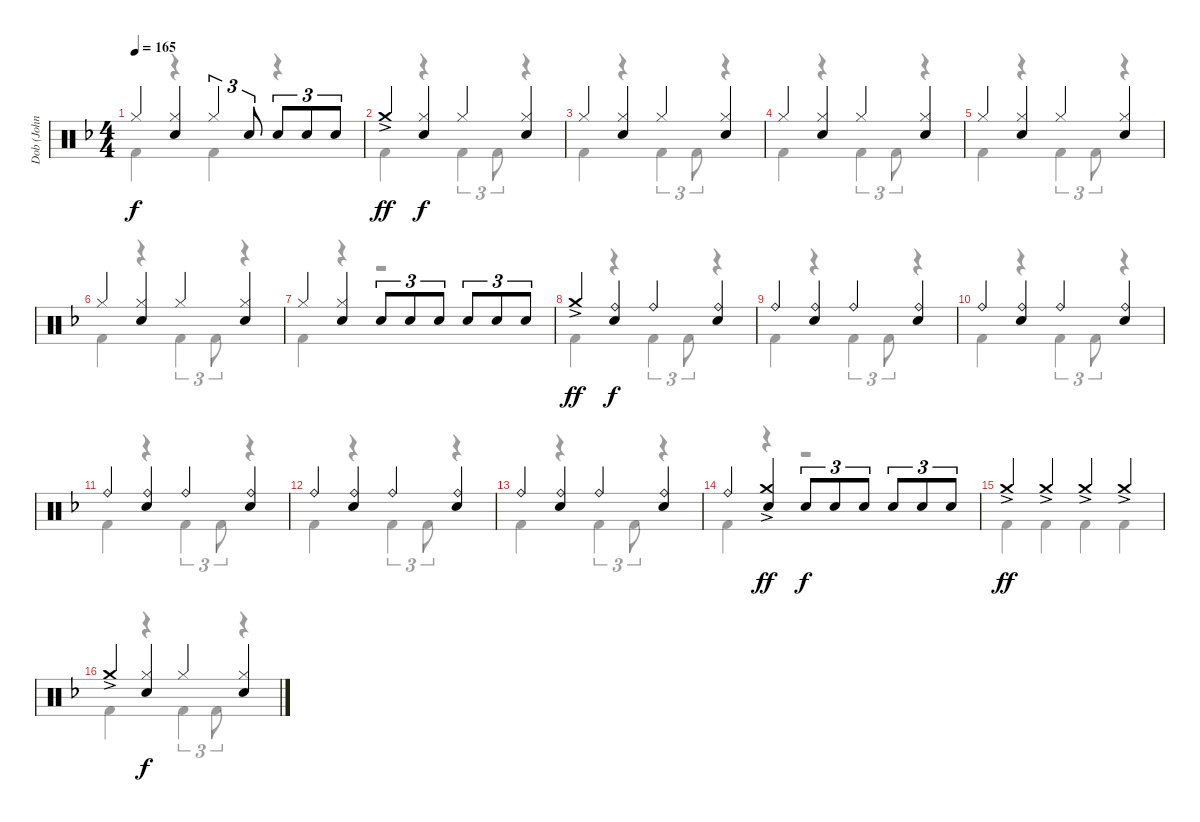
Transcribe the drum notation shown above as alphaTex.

\track ("Dob (John O’Reilly)" "Dob (John ") {instrument percussion}
\staff {score}
\articulation defaults
\voice
\ts (4 4)
\tempo 165
\clef neutral
\ks f "Hi-Hat (closed)".4{dy f}
("Hi-Hat (closed)" "Electric Snare (hit)").4 "Hi-Hat (closed)".4{tu (3 2)} "Electric Snare (hit)".8{tu (3 2)} "Electric Snare (hit)".8{tu (3 2)} "Electric Snare (hit)".8{tu (3 2)} "Electric Snare (hit)".8{tu (3 2)} |
"Crash medium (hit)"{ac}.4{dy ff} ("Hi-Hat (closed)" "Electric Snare (hit)").4{dy f} "Hi-Hat (closed)".4 ("Hi-Hat (closed)" "Electric Snare (hit)").4 |
"Hi-Hat (closed)".4 ("Hi-Hat (closed)" "Electric Snare (hit)").4 "Hi-Hat (closed)".4 ("Hi-Hat (closed)" "Electric Snare (hit)").4 |
"Hi-Hat (closed)".4 ("Hi-Hat (closed)" "Electric Snare (hit)").4 "Hi-Hat (closed)".4 ("Hi-Hat (closed)" "Electric Snare (hit)").4 |
"Hi-Hat (closed)".4 ("Hi-Hat (closed)" "Electric Snare (hit)").4 "Hi-Hat (closed)".4 ("Hi-Hat (closed)" "Electric Snare (hit)").4 |
"Hi-Hat (closed)".4 ("Hi-Hat (closed)" "Electric Snare (hit)").4 "Hi-Hat (closed)".4 ("Hi-Hat (closed)" "Electric Snare (hit)").4 |
"Hi-Hat (closed)".4 ("Hi-Hat (closed)" "Electric Snare (hit)").4 "Electric Snare (hit)".8{tu (3 2)} "Electric Snare (hit)".8{tu (3 2)} "Electric Snare (hit)".8{tu (3 2)} "Electric Snare (hit)".8{tu (3 2)} "Electric Snare (hit)".8{tu (3 2)} "Electric Snare (hit)".8{tu (3 2)} |
"Crash medium (hit)"{ac}.4{dy ff} ("Ride (bell)" "Electric Snare (hit)").4{dy f} "Ride (bell)".4 ("Ride (bell)" "Electric Snare (hit)").4 |
"Ride (bell)".4 ("Ride (bell)" "Electric Snare (hit)").4 "Ride (bell)".4 ("Ride (bell)" "Electric Snare (hit)").4 |
"Ride (bell)".4 ("Ride (bell)" "Electric Snare (hit)").4 "Ride (bell)".4 ("Ride (bell)" "Electric Snare (hit)").4 |
"Ride (bell)".4 ("Ride (bell)" "Electric Snare (hit)").4 "Ride (bell)".4 ("Ride (bell)" "Electric Snare (hit)").4 |
"Ride (bell)".4 ("Ride (bell)" "Electric Snare (hit)").4 "Ride (bell)".4 ("Ride (bell)" "Electric Snare (hit)").4 |
"Ride (bell)".4 ("Ride (bell)" "Electric Snare (hit)").4 "Ride (bell)".4 ("Ride (bell)" "Electric Snare (hit)").4 |
"Ride (bell)".4 ("Crash medium (hit)"{ac} "Electric Snare (hit)").4{dy ff} "Electric Snare (hit)".8{tu (3 2) dy f} "Electric Snare (hit)".8{tu (3 2)} "Electric Snare (hit)".8{tu (3 2)} "Electric Snare (hit)".8{tu (3 2)} "Electric Snare (hit)".8{tu (3 2)} "Electric Snare (hit)".8{tu (3 2)} |
"Crash medium (hit)"{ac}.4{dy ff} "Crash medium (hit)"{ac}.4 "Crash medium (hit)"{ac}.4 "Crash medium (hit)"{ac}.4 |
"Crash medium (hit)"{ac}.4 ("Hi-Hat (closed)" "Electric Snare (hit)").4{dy f} "Hi-Hat (closed)".4 ("Hi-Hat (closed)" "Electric Snare (hit)").4
\voice
\clef neutral
\ottava regular
\simile none
\ks f "Kick (hit) 2".4{dy f}
r.4 "Kick (hit) 2".4 r.4 |
"Kick (hit) 2".4 r.4 "Kick (hit) 2".4{tu (3 2)} "Kick (hit) 2".8{tu (3 2)} r.4 |
"Kick (hit) 2".4 r.4 "Kick (hit) 2".4{tu (3 2)} "Kick (hit) 2".8{tu (3 2)} r.4 |
"Kick (hit) 2".4 r.4 "Kick (hit) 2".4{tu (3 2)} "Kick (hit) 2".8{tu (3 2)} r.4 |
"Kick (hit) 2".4 r.4 "Kick (hit) 2".4{tu (3 2)} "Kick (hit) 2".8{tu (3 2)} r.4 |
"Kick (hit) 2".4 r.4 "Kick (hit) 2".4{tu (3 2)} "Kick (hit) 2".8{tu (3 2)} r.4 |
"Kick (hit) 2".4 r.4 r.2 |
"Kick (hit) 2".4 r.4 "Kick (hit) 2".4{tu (3 2)} "Kick (hit) 2".8{tu (3 2)} r.4 |
"Kick (hit) 2".4 r.4 "Kick (hit) 2".4{tu (3 2)} "Kick (hit) 2".8{tu (3 2)} r.4 |
"Kick (hit) 2".4 r.4 "Kick (hit) 2".4{tu (3 2)} "Kick (hit) 2".8{tu (3 2)} r.4 |
"Kick (hit) 2".4 r.4 "Kick (hit) 2".4{tu (3 2)} "Kick (hit) 2".8{tu (3 2)} r.4 |
"Kick (hit) 2".4 r.4 "Kick (hit) 2".4{tu (3 2)} "Kick (hit) 2".8{tu (3 2)} r.4 |
"Kick (hit) 2".4 r.4 "Kick (hit) 2".4{tu (3 2)} "Kick (hit) 2".8{tu (3 2)} r.4 |
"Kick (hit) 2".4 r.4 r.2 |
"Kick (hit) 2".4 "Kick (hit) 2".4 "Kick (hit) 2".4 "Kick (hit) 2".4 |
"Kick (hit) 2".4 r.4 "Kick (hit) 2".4{tu (3 2)} "Kick (hit) 2".8{tu (3 2)} r.4
